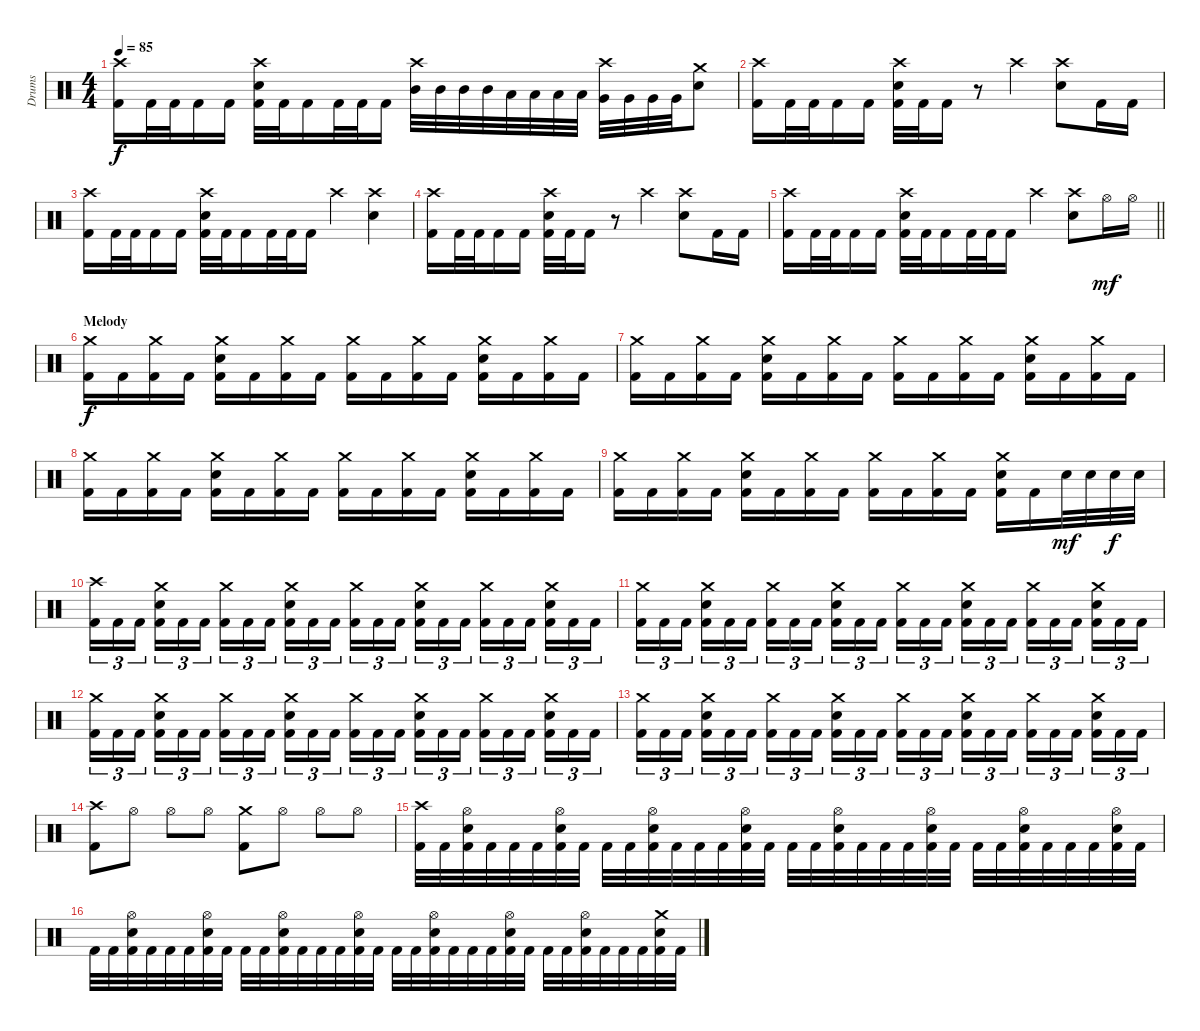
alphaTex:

\track ("Drums" "Drums") {instrument percussion}
\staff {score}
\articulation defaults
\ts (4 4)
\tempo 85
\clef neutral
\ks c
("Crash high (hit)" "Kick (hit) 2").16{dy f} "Kick (hit) 2".32 "Kick (hit) 2".32 "Kick (hit) 2".16 "Kick (hit) 2".16 ("Crash high (hit)" "Electric Snare (hit)" "Kick (hit) 2").32 "Kick (hit) 2".32 "Kick (hit) 2".16 "Kick (hit) 2".32 "Kick (hit) 2".32 "Kick (hit) 2".16 ("Crash high (hit)" "Mid Tom (hit)").32 "Mid Tom (hit)".32 "Mid Tom (hit)".32 "Mid Tom (hit)".32 "Low Tom (hit)".32 "Low Tom (hit)".32 "Low Tom (hit)".32 "Low Tom (hit)".32 ("Crash high (hit)" "Very Low Tom (hit)").32 "Very Low Tom (hit)".32 "Very Low Tom (hit)".32 "Very Low Tom (hit)".32 ("Crash medium (hit)" "Electric Snare (hit)").8 |
("Crash high (hit)" "Kick (hit) 2").16 "Kick (hit) 2".32 "Kick (hit) 2".32 "Kick (hit) 2".16 "Kick (hit) 2".16 ("Crash high (hit)" "Electric Snare (hit)" "Kick (hit) 2").32 "Kick (hit) 2".32 "Kick (hit) 2".16 r.8 "Crash high (hit)".4 ("Crash high (hit)" "Electric Snare (hit)").8 "Kick (hit) 2".16 "Kick (hit) 2".16 |
("Crash high (hit)" "Kick (hit) 2").16 "Kick (hit) 2".32 "Kick (hit) 2".32 "Kick (hit) 2".16 "Kick (hit) 2".16 ("Crash high (hit)" "Electric Snare (hit)" "Kick (hit) 2").32 "Kick (hit) 2".32 "Kick (hit) 2".16 "Kick (hit) 2".32 "Kick (hit) 2".32 "Kick (hit) 2".16 "Crash high (hit)".4 ("Crash high (hit)" "Electric Snare (hit)").4 |
("Crash high (hit)" "Kick (hit) 2").16 "Kick (hit) 2".32 "Kick (hit) 2".32 "Kick (hit) 2".16 "Kick (hit) 2".16 ("Crash high (hit)" "Electric Snare (hit)" "Kick (hit) 2").32 "Kick (hit) 2".32 "Kick (hit) 2".16 r.8 "Crash high (hit)".4 ("Crash high (hit)" "Electric Snare (hit)").8 "Kick (hit) 2".16 "Kick (hit) 2".16 |
\barLineRight lightlight
("Crash high (hit)" "Kick (hit) 2").16 "Kick (hit) 2".32 "Kick (hit) 2".32 "Kick (hit) 2".16 "Kick (hit) 2".16 ("Crash high (hit)" "Electric Snare (hit)" "Kick (hit) 2").32 "Kick (hit) 2".32 "Kick (hit) 2".16 "Kick (hit) 2".32 "Kick (hit) 2".32 "Kick (hit) 2".16 "Crash high (hit)".4 ("Crash high (hit)" "Electric Snare (hit)").8 "Hi-Hat (open)".16{dy mf} "Hi-Hat (open)".16 |
\section ("" "Melody")
("Crash medium (hit)" "Kick (hit) 2").16{dy f} "Kick (hit) 2".16 ("Crash medium (hit)" "Kick (hit) 2").16 "Kick (hit) 2".16 ("Crash medium (hit)" "Electric Snare (hit)" "Kick (hit) 2").16 "Kick (hit) 2".16 ("Crash medium (hit)" "Kick (hit) 2").16 "Kick (hit) 2".16 ("Crash medium (hit)" "Kick (hit) 2").16 "Kick (hit) 2".16 ("Crash medium (hit)" "Kick (hit) 2").16 "Kick (hit) 2".16 ("Crash medium (hit)" "Electric Snare (hit)" "Kick (hit) 2").16 "Kick (hit) 2".16 ("Crash medium (hit)" "Kick (hit) 2").16 "Kick (hit) 2".16 |
("Crash medium (hit)" "Kick (hit) 2").16 "Kick (hit) 2".16 ("Crash medium (hit)" "Kick (hit) 2").16 "Kick (hit) 2".16 ("Crash medium (hit)" "Electric Snare (hit)" "Kick (hit) 2").16 "Kick (hit) 2".16 ("Crash medium (hit)" "Kick (hit) 2").16 "Kick (hit) 2".16 ("Crash medium (hit)" "Kick (hit) 2").16 "Kick (hit) 2".16 ("Crash medium (hit)" "Kick (hit) 2").16 "Kick (hit) 2".16 ("Crash medium (hit)" "Electric Snare (hit)" "Kick (hit) 2").16 "Kick (hit) 2".16 ("Crash medium (hit)" "Kick (hit) 2").16 "Kick (hit) 2".16 |
("Crash medium (hit)" "Kick (hit) 2").16 "Kick (hit) 2".16 ("Crash medium (hit)" "Kick (hit) 2").16 "Kick (hit) 2".16 ("Crash medium (hit)" "Electric Snare (hit)" "Kick (hit) 2").16 "Kick (hit) 2".16 ("Crash medium (hit)" "Kick (hit) 2").16 "Kick (hit) 2".16 ("Crash medium (hit)" "Kick (hit) 2").16 "Kick (hit) 2".16 ("Crash medium (hit)" "Kick (hit) 2").16 "Kick (hit) 2".16 ("Crash medium (hit)" "Electric Snare (hit)" "Kick (hit) 2").16 "Kick (hit) 2".16 ("Crash medium (hit)" "Kick (hit) 2").16 "Kick (hit) 2".16 |
("Crash medium (hit)" "Kick (hit) 2").16 "Kick (hit) 2".16 ("Crash medium (hit)" "Kick (hit) 2").16 "Kick (hit) 2".16 ("Crash medium (hit)" "Electric Snare (hit)" "Kick (hit) 2").16 "Kick (hit) 2".16 ("Crash medium (hit)" "Kick (hit) 2").16 "Kick (hit) 2".16 ("Crash medium (hit)" "Kick (hit) 2").16 "Kick (hit) 2".16 ("Crash medium (hit)" "Kick (hit) 2").16 "Kick (hit) 2".16 ("Crash medium (hit)" "Electric Snare (hit)" "Kick (hit) 2").16 "Kick (hit) 2".16 "Electric Snare (hit)".32{dy mf} "Electric Snare (hit)".32 "Electric Snare (hit)".32{dy f} "Electric Snare (hit)".32 |
("Crash high (hit)" "Kick (hit) 2").16{tu (3 2)} "Kick (hit) 2".16{tu (3 2)} "Kick (hit) 2".16{tu (3 2)} ("Crash medium (hit)" "Electric Snare (hit)" "Kick (hit) 2").16{tu (3 2)} "Kick (hit) 2".16{tu (3 2)} "Kick (hit) 2".16{tu (3 2)} ("Crash medium (hit)" "Kick (hit) 2").16{tu (3 2)} "Kick (hit) 2".16{tu (3 2)} "Kick (hit) 2".16{tu (3 2)} ("Crash medium (hit)" "Electric Snare (hit)" "Kick (hit) 2").16{tu (3 2)} "Kick (hit) 2".16{tu (3 2)} "Kick (hit) 2".16{tu (3 2)} ("Crash medium (hit)" "Kick (hit) 2").16{tu (3 2)} "Kick (hit) 2".16{tu (3 2)} "Kick (hit) 2".16{tu (3 2)} ("Crash medium (hit)" "Electric Snare (hit)" "Kick (hit) 2").16{tu (3 2)} "Kick (hit) 2".16{tu (3 2)} "Kick (hit) 2".16{tu (3 2)} ("Crash medium (hit)" "Kick (hit) 2").16{tu (3 2)} "Kick (hit) 2".16{tu (3 2)} "Kick (hit) 2".16{tu (3 2)} ("Crash medium (hit)" "Electric Snare (hit)" "Kick (hit) 2").16{tu (3 2)} "Kick (hit) 2".16{tu (3 2)} "Kick (hit) 2".16{tu (3 2)} |
("Crash medium (hit)" "Kick (hit) 2").16{tu (3 2)} "Kick (hit) 2".16{tu (3 2)} "Kick (hit) 2".16{tu (3 2)} ("Crash medium (hit)" "Electric Snare (hit)" "Kick (hit) 2").16{tu (3 2)} "Kick (hit) 2".16{tu (3 2)} "Kick (hit) 2".16{tu (3 2)} ("Crash medium (hit)" "Kick (hit) 2").16{tu (3 2)} "Kick (hit) 2".16{tu (3 2)} "Kick (hit) 2".16{tu (3 2)} ("Crash medium (hit)" "Electric Snare (hit)" "Kick (hit) 2").16{tu (3 2)} "Kick (hit) 2".16{tu (3 2)} "Kick (hit) 2".16{tu (3 2)} ("Crash medium (hit)" "Kick (hit) 2").16{tu (3 2)} "Kick (hit) 2".16{tu (3 2)} "Kick (hit) 2".16{tu (3 2)} ("Crash medium (hit)" "Electric Snare (hit)" "Kick (hit) 2").16{tu (3 2)} "Kick (hit) 2".16{tu (3 2)} "Kick (hit) 2".16{tu (3 2)} ("Crash medium (hit)" "Kick (hit) 2").16{tu (3 2)} "Kick (hit) 2".16{tu (3 2)} "Kick (hit) 2".16{tu (3 2)} ("Crash medium (hit)" "Electric Snare (hit)" "Kick (hit) 2").16{tu (3 2)} "Kick (hit) 2".16{tu (3 2)} "Kick (hit) 2".16{tu (3 2)} |
("Crash medium (hit)" "Kick (hit) 2").16{tu (3 2)} "Kick (hit) 2".16{tu (3 2)} "Kick (hit) 2".16{tu (3 2)} ("Crash medium (hit)" "Electric Snare (hit)" "Kick (hit) 2").16{tu (3 2)} "Kick (hit) 2".16{tu (3 2)} "Kick (hit) 2".16{tu (3 2)} ("Crash medium (hit)" "Kick (hit) 2").16{tu (3 2)} "Kick (hit) 2".16{tu (3 2)} "Kick (hit) 2".16{tu (3 2)} ("Crash medium (hit)" "Electric Snare (hit)" "Kick (hit) 2").16{tu (3 2)} "Kick (hit) 2".16{tu (3 2)} "Kick (hit) 2".16{tu (3 2)} ("Crash medium (hit)" "Kick (hit) 2").16{tu (3 2)} "Kick (hit) 2".16{tu (3 2)} "Kick (hit) 2".16{tu (3 2)} ("Crash medium (hit)" "Electric Snare (hit)" "Kick (hit) 2").16{tu (3 2)} "Kick (hit) 2".16{tu (3 2)} "Kick (hit) 2".16{tu (3 2)} ("Crash medium (hit)" "Kick (hit) 2").16{tu (3 2)} "Kick (hit) 2".16{tu (3 2)} "Kick (hit) 2".16{tu (3 2)} ("Crash medium (hit)" "Electric Snare (hit)" "Kick (hit) 2").16{tu (3 2)} "Kick (hit) 2".16{tu (3 2)} "Kick (hit) 2".16{tu (3 2)} |
("Crash medium (hit)" "Kick (hit) 2").16{tu (3 2)} "Kick (hit) 2".16{tu (3 2)} "Kick (hit) 2".16{tu (3 2)} ("Crash medium (hit)" "Electric Snare (hit)" "Kick (hit) 2").16{tu (3 2)} "Kick (hit) 2".16{tu (3 2)} "Kick (hit) 2".16{tu (3 2)} ("Crash medium (hit)" "Kick (hit) 2").16{tu (3 2)} "Kick (hit) 2".16{tu (3 2)} "Kick (hit) 2".16{tu (3 2)} ("Crash medium (hit)" "Electric Snare (hit)" "Kick (hit) 2").16{tu (3 2)} "Kick (hit) 2".16{tu (3 2)} "Kick (hit) 2".16{tu (3 2)} ("Crash medium (hit)" "Kick (hit) 2").16{tu (3 2)} "Kick (hit) 2".16{tu (3 2)} "Kick (hit) 2".16{tu (3 2)} ("Crash medium (hit)" "Electric Snare (hit)" "Kick (hit) 2").16{tu (3 2)} "Kick (hit) 2".16{tu (3 2)} "Kick (hit) 2".16{tu (3 2)} ("Crash medium (hit)" "Kick (hit) 2").16{tu (3 2)} "Kick (hit) 2".16{tu (3 2)} "Kick (hit) 2".16{tu (3 2)} ("Crash medium (hit)" "Electric Snare (hit)" "Kick (hit) 2").16{tu (3 2)} "Kick (hit) 2".16{tu (3 2)} "Kick (hit) 2".16{tu (3 2)} |
("Crash high (hit)" "Kick (hit) 2").8 "Hi-Hat (open)".8 "Hi-Hat (open)".8 "Hi-Hat (open)".8 ("Crash medium (hit)" "Kick (hit) 2").8 "Hi-Hat (open)".8 "Hi-Hat (open)".8 "Hi-Hat (open)".8 |
("Crash high (hit)" "Kick (hit) 2").32 "Kick (hit) 2".32 ("Hi-Hat (open)" "Electric Snare (hit)" "Kick (hit) 2").32 "Kick (hit) 2".32 "Kick (hit) 2".32 "Kick (hit) 2".32 ("Hi-Hat (open)" "Electric Snare (hit)" "Kick (hit) 2").32 "Kick (hit) 2".32 "Kick (hit) 2".32 "Kick (hit) 2".32 ("Hi-Hat (open)" "Electric Snare (hit)" "Kick (hit) 2").32 "Kick (hit) 2".32 "Kick (hit) 2".32 "Kick (hit) 2".32 ("Hi-Hat (open)" "Electric Snare (hit)" "Kick (hit) 2").32 "Kick (hit) 2".32 "Kick (hit) 2".32 "Kick (hit) 2".32 ("Hi-Hat (open)" "Electric Snare (hit)" "Kick (hit) 2").32 "Kick (hit) 2".32 "Kick (hit) 2".32 "Kick (hit) 2".32 ("Hi-Hat (open)" "Electric Snare (hit)" "Kick (hit) 2").32 "Kick (hit) 2".32 "Kick (hit) 2".32 "Kick (hit) 2".32 ("Hi-Hat (open)" "Electric Snare (hit)" "Kick (hit) 2").32 "Kick (hit) 2".32 "Kick (hit) 2".32 "Kick (hit) 2".32 ("Hi-Hat (open)" "Electric Snare (hit)" "Kick (hit) 2").32 "Kick (hit) 2".32 |
"Kick (hit) 2".32 "Kick (hit) 2".32 ("Hi-Hat (open)" "Electric Snare (hit)" "Kick (hit) 2").32 "Kick (hit) 2".32 "Kick (hit) 2".32 "Kick (hit) 2".32 ("Hi-Hat (open)" "Electric Snare (hit)" "Kick (hit) 2").32 "Kick (hit) 2".32 "Kick (hit) 2".32 "Kick (hit) 2".32 ("Hi-Hat (open)" "Electric Snare (hit)" "Kick (hit) 2").32 "Kick (hit) 2".32 "Kick (hit) 2".32 "Kick (hit) 2".32 ("Hi-Hat (open)" "Electric Snare (hit)" "Kick (hit) 2").32 "Kick (hit) 2".32 "Kick (hit) 2".32 "Kick (hit) 2".32 ("Hi-Hat (open)" "Electric Snare (hit)" "Kick (hit) 2").32 "Kick (hit) 2".32 "Kick (hit) 2".32 "Kick (hit) 2".32 ("Hi-Hat (open)" "Electric Snare (hit)" "Kick (hit) 2").32 "Kick (hit) 2".32 "Kick (hit) 2".32 "Kick (hit) 2".32 ("Hi-Hat (open)" "Electric Snare (hit)" "Kick (hit) 2").32 "Kick (hit) 2".32 "Kick (hit) 2".32 "Kick (hit) 2".32 ("Crash medium (hit)" "Electric Snare (hit)" "Kick (hit) 2").32 "Kick (hit) 2".32
